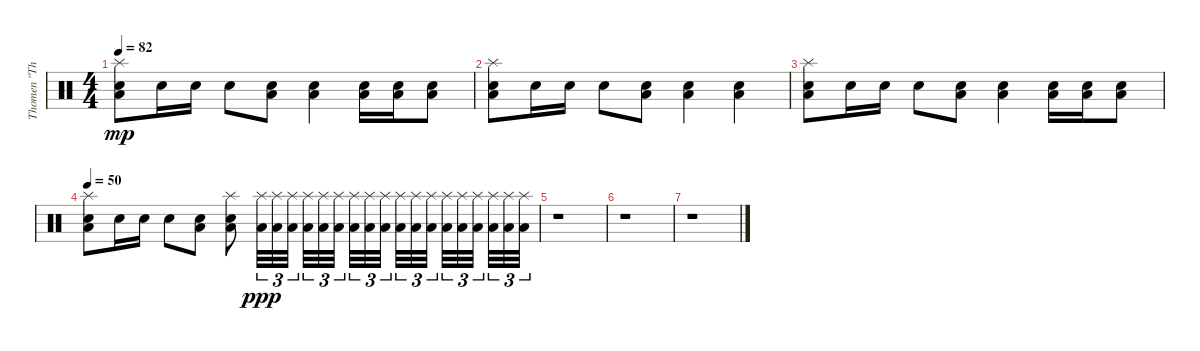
\track ("Thomen \"The Omen\" Stauch " "Thomen \"Th") {instrument percussion}
\staff {score}
\articulation defaults
\ts (4 4)
\tempo 82
\clef neutral
\ks c
("Low Floor Tom (hit)" "Snare (hit) 2" "Splash (hit)").8{dy mp} "Snare (hit) 2".16 "Snare (hit) 2".16 "Snare (hit) 2".8 ("Low Floor Tom (hit)" "Snare (hit) 2").8 ("Low Floor Tom (hit)" "Snare (hit) 2").4 ("Low Floor Tom (hit)" "Snare (hit) 2").16 ("Low Floor Tom (hit)" "Snare (hit) 2").16 ("Low Floor Tom (hit)" "Snare (hit) 2").8 |
("Low Floor Tom (hit)" "Snare (hit) 2" "Splash (hit)").8 "Snare (hit) 2".16 "Snare (hit) 2".16 "Snare (hit) 2".8 ("Low Floor Tom (hit)" "Snare (hit) 2").8 ("Low Floor Tom (hit)" "Snare (hit) 2").4 ("Low Floor Tom (hit)" "Snare (hit) 2").4 |
("Low Floor Tom (hit)" "Snare (hit) 2" "Splash (hit)").8 "Snare (hit) 2".16 "Snare (hit) 2".16 "Snare (hit) 2".8 ("Low Floor Tom (hit)" "Snare (hit) 2").8 ("Low Floor Tom (hit)" "Snare (hit) 2").4 ("Low Floor Tom (hit)" "Snare (hit) 2").16 ("Low Floor Tom (hit)" "Snare (hit) 2").16 ("Low Floor Tom (hit)" "Snare (hit) 2").8 |
\tempo 50
("Low Floor Tom (hit)" "Snare (hit) 2" "Splash (hit)").8 "Snare (hit) 2".16 "Snare (hit) 2".16 "Snare (hit) 2".8 ("Low Floor Tom (hit)" "Snare (hit) 2").8 ("Low Floor Tom (hit)" "Snare (hit) 2" "Splash (hit)").8 ("Low Floor Tom (hit)" "Splash (hit)").32{tu (3 2) dy ppp} ("Low Floor Tom (hit)" "Splash (hit)").32{tu (3 2)} ("Low Floor Tom (hit)" "Splash (hit)").32{tu (3 2)} ("Low Floor Tom (hit)" "Splash (hit)").32{tu (3 2)} ("Low Floor Tom (hit)" "Splash (hit)").32{tu (3 2)} ("Low Floor Tom (hit)" "Splash (hit)").32{tu (3 2)} ("Low Floor Tom (hit)" "Splash (hit)").32{tu (3 2)} ("Low Floor Tom (hit)" "Splash (hit)").32{tu (3 2)} ("Low Floor Tom (hit)" "Splash (hit)").32{tu (3 2)} ("Low Floor Tom (hit)" "Splash (hit)").32{tu (3 2)} ("Low Floor Tom (hit)" "Splash (hit)").32{tu (3 2)} ("Low Floor Tom (hit)" "Splash (hit)").32{tu (3 2)} ("Low Floor Tom (hit)" "Splash (hit)").32{tu (3 2)} ("Low Floor Tom (hit)" "Splash (hit)").32{tu (3 2)} ("Low Floor Tom (hit)" "Splash (hit)").32{tu (3 2)} ("Low Floor Tom (hit)" "Splash (hit)").32{tu (3 2)} ("Low Floor Tom (hit)" "Splash (hit)").32{tu (3 2)} ("Low Floor Tom (hit)" "Splash (hit)").32{tu (3 2)} |
r.1 |
r.1 |
r.1
